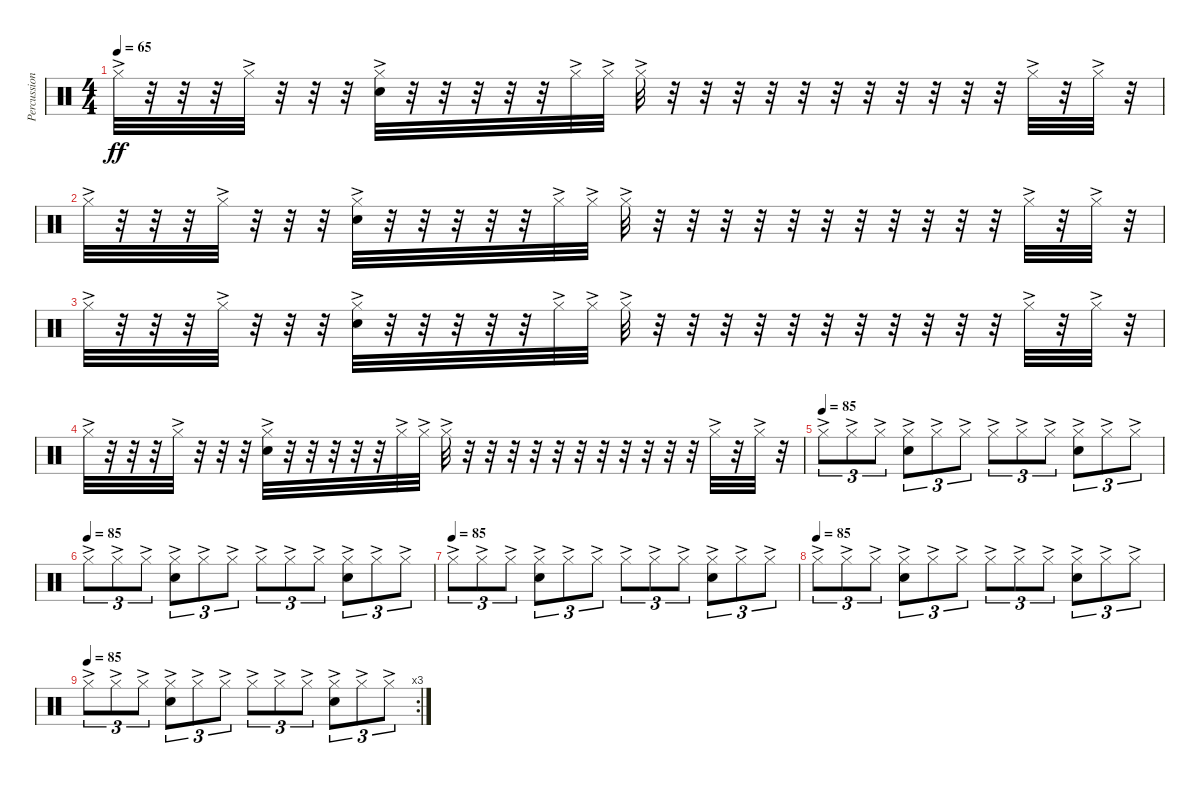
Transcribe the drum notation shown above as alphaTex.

\track ("Percussion" "Percussion") {instrument percussion}
\staff {score}
\articulation defaults
\ts (4 4)
\tempo 65
\clef neutral
\ks c "Hi-Hat (closed)"{ac}.32{dy ff}
r.32 r.32 r.32 "Hi-Hat (closed)"{ac}.32 r.32 r.32 r.32 ("Hi-Hat (closed)"{ac} "Snare (hit) 2"{ac}).32 r.32 r.32 r.32 r.32 r.32 "Hi-Hat (closed)"{ac}.32 "Hi-Hat (closed)"{ac}.32 "Hi-Hat (closed)"{ac}.32 r.32 r.32 r.32 r.32 r.32 r.32 r.32 r.32 r.32 r.32 r.32 "Hi-Hat (closed)"{ac}.32 r.32 "Hi-Hat (closed)"{ac}.32 r.32 |
"Hi-Hat (closed)"{ac}.32 r.32 r.32 r.32 "Hi-Hat (closed)"{ac}.32 r.32 r.32 r.32 ("Hi-Hat (closed)"{ac} "Snare (hit) 2"{ac}).32 r.32 r.32 r.32 r.32 r.32 "Hi-Hat (closed)"{ac}.32 "Hi-Hat (closed)"{ac}.32 "Hi-Hat (closed)"{ac}.32 r.32 r.32 r.32 r.32 r.32 r.32 r.32 r.32 r.32 r.32 r.32 "Hi-Hat (closed)"{ac}.32 r.32 "Hi-Hat (closed)"{ac}.32 r.32 |
"Hi-Hat (closed)"{ac}.32 r.32 r.32 r.32 "Hi-Hat (closed)"{ac}.32 r.32 r.32 r.32 ("Hi-Hat (closed)"{ac} "Snare (hit) 2"{ac}).32 r.32 r.32 r.32 r.32 r.32 "Hi-Hat (closed)"{ac}.32 "Hi-Hat (closed)"{ac}.32 "Hi-Hat (closed)"{ac}.32 r.32 r.32 r.32 r.32 r.32 r.32 r.32 r.32 r.32 r.32 r.32 "Hi-Hat (closed)"{ac}.32 r.32 "Hi-Hat (closed)"{ac}.32 r.32 |
"Hi-Hat (closed)"{ac}.32 r.32 r.32 r.32 "Hi-Hat (closed)"{ac}.32 r.32 r.32 r.32 ("Hi-Hat (closed)"{ac} "Snare (hit) 2"{ac}).32 r.32 r.32 r.32 r.32 r.32 "Hi-Hat (closed)"{ac}.32 "Hi-Hat (closed)"{ac}.32 "Hi-Hat (closed)"{ac}.32 r.32 r.32 r.32 r.32 r.32 r.32 r.32 r.32 r.32 r.32 r.32 "Hi-Hat (closed)"{ac}.32 r.32 "Hi-Hat (closed)"{ac}.32 r.32 |
\tempo (85)
"Hi-Hat (closed)"{ac}.8{tu (3 2)} "Hi-Hat (closed)"{ac}.8{tu (3 2)} "Hi-Hat (closed)"{ac}.8{tu (3 2)} ("Hi-Hat (closed)"{ac} "Snare (hit) 2"{ac}).8{tu (3 2)} "Hi-Hat (closed)"{ac}.8{tu (3 2)} "Hi-Hat (closed)"{ac}.8{tu (3 2)} "Hi-Hat (closed)"{ac}.8{tu (3 2)} "Hi-Hat (closed)"{ac}.8{tu (3 2)} "Hi-Hat (closed)"{ac}.8{tu (3 2)} ("Hi-Hat (closed)"{ac} "Snare (hit) 2"{ac}).8{tu (3 2)} "Hi-Hat (closed)"{ac}.8{tu (3 2)} "Hi-Hat (closed)"{ac}.8{tu (3 2)} |
\tempo (85)
"Hi-Hat (closed)"{ac}.8{tu (3 2)} "Hi-Hat (closed)"{ac}.8{tu (3 2)} "Hi-Hat (closed)"{ac}.8{tu (3 2)} ("Hi-Hat (closed)"{ac} "Snare (hit) 2"{ac}).8{tu (3 2)} "Hi-Hat (closed)"{ac}.8{tu (3 2)} "Hi-Hat (closed)"{ac}.8{tu (3 2)} "Hi-Hat (closed)"{ac}.8{tu (3 2)} "Hi-Hat (closed)"{ac}.8{tu (3 2)} "Hi-Hat (closed)"{ac}.8{tu (3 2)} ("Hi-Hat (closed)"{ac} "Snare (hit) 2"{ac}).8{tu (3 2)} "Hi-Hat (closed)"{ac}.8{tu (3 2)} "Hi-Hat (closed)"{ac}.8{tu (3 2)} |
\tempo (85)
"Hi-Hat (closed)"{ac}.8{tu (3 2)} "Hi-Hat (closed)"{ac}.8{tu (3 2)} "Hi-Hat (closed)"{ac}.8{tu (3 2)} ("Hi-Hat (closed)"{ac} "Snare (hit) 2"{ac}).8{tu (3 2)} "Hi-Hat (closed)"{ac}.8{tu (3 2)} "Hi-Hat (closed)"{ac}.8{tu (3 2)} "Hi-Hat (closed)"{ac}.8{tu (3 2)} "Hi-Hat (closed)"{ac}.8{tu (3 2)} "Hi-Hat (closed)"{ac}.8{tu (3 2)} ("Hi-Hat (closed)"{ac} "Snare (hit) 2"{ac}).8{tu (3 2)} "Hi-Hat (closed)"{ac}.8{tu (3 2)} "Hi-Hat (closed)"{ac}.8{tu (3 2)} |
\tempo (85)
"Hi-Hat (closed)"{ac}.8{tu (3 2)} "Hi-Hat (closed)"{ac}.8{tu (3 2)} "Hi-Hat (closed)"{ac}.8{tu (3 2)} ("Hi-Hat (closed)"{ac} "Snare (hit) 2"{ac}).8{tu (3 2)} "Hi-Hat (closed)"{ac}.8{tu (3 2)} "Hi-Hat (closed)"{ac}.8{tu (3 2)} "Hi-Hat (closed)"{ac}.8{tu (3 2)} "Hi-Hat (closed)"{ac}.8{tu (3 2)} "Hi-Hat (closed)"{ac}.8{tu (3 2)} ("Hi-Hat (closed)"{ac} "Snare (hit) 2"{ac}).8{tu (3 2)} "Hi-Hat (closed)"{ac}.8{tu (3 2)} "Hi-Hat (closed)"{ac}.8{tu (3 2)} |
\rc 3
\tempo (85)
"Hi-Hat (closed)"{ac}.8{tu (3 2)} "Hi-Hat (closed)"{ac}.8{tu (3 2)} "Hi-Hat (closed)"{ac}.8{tu (3 2)} ("Hi-Hat (closed)"{ac} "Snare (hit) 2"{ac}).8{tu (3 2)} "Hi-Hat (closed)"{ac}.8{tu (3 2)} "Hi-Hat (closed)"{ac}.8{tu (3 2)} "Hi-Hat (closed)"{ac}.8{tu (3 2)} "Hi-Hat (closed)"{ac}.8{tu (3 2)} "Hi-Hat (closed)"{ac}.8{tu (3 2)} ("Hi-Hat (closed)"{ac} "Snare (hit) 2"{ac}).8{tu (3 2)} "Hi-Hat (closed)"{ac}.8{tu (3 2)} "Hi-Hat (closed)"{ac}.8{tu (3 2)}
